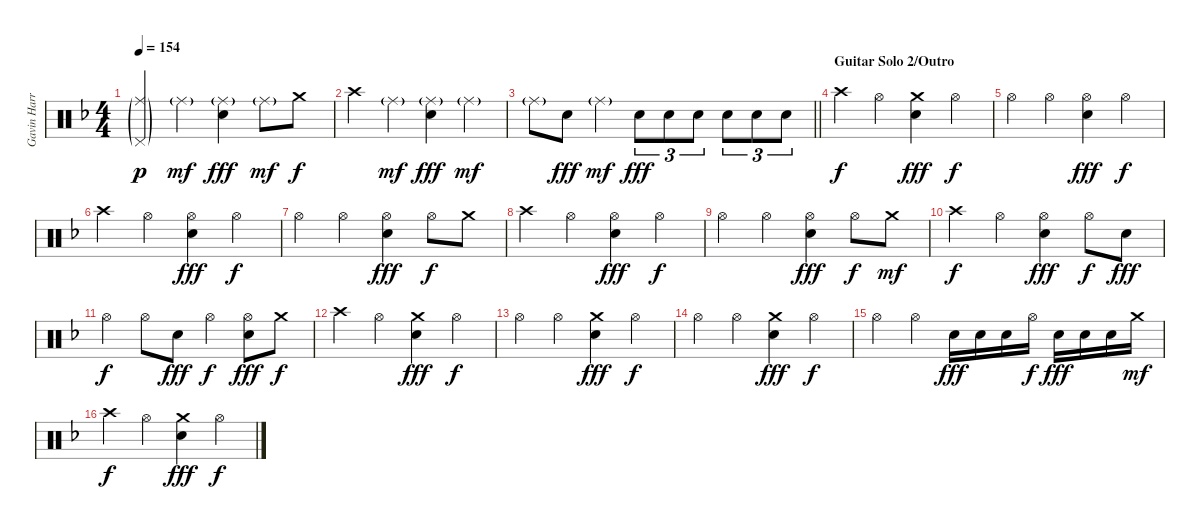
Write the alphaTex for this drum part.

\track ("Gavin Harrison Drums" "Gavin Harr") {instrument percussion}
\staff {score}
\articulation defaults
\ts (4 4)
\tempo 154
\clef neutral
\ks dminor
("Ride (middle)"{g} "Pedal Hi-Hat (hit)"{g}).4{dy p} "Ride (middle)"{g}.4{dy mf} ("Ride (middle)"{g} "Electric Snare (hit)").4{dy fff} "Ride (middle)"{g}.8{dy mf} "Crash medium (hit)".8{dy f} |
"Crash high (hit)".4 "Ride (middle)"{g}.4{dy mf} ("Ride (middle)"{g} "Electric Snare (hit)").4{dy fff} "Ride (middle)"{g}.4{dy mf} |
\barLineRight lightlight "Ride (middle)"{g}.8 "Electric Snare (hit)".8{dy fff} "Ride (middle)"{g}.4{dy mf} "Electric Snare (hit)".8{tu (3 2) dy fff} "Electric Snare (hit)".8{tu (3 2)} "Electric Snare (hit)".8{tu (3 2)} "Electric Snare (hit)".8{tu (3 2)} "Electric Snare (hit)".8{tu (3 2)} "Electric Snare (hit)".8{tu (3 2)}
|
\section ("" "Guitar Solo 2/Outro")
"Crash high (hit)".4{dy f} "Hi-Hat (open)".4 ("Crash medium (hit)" "Electric Snare (hit)").4{dy fff} "Hi-Hat (open)".4{dy f} |
"Hi-Hat (open)".4 "Hi-Hat (open)".4 ("Hi-Hat (open)" "Electric Snare (hit)").4{dy fff} "Hi-Hat (open)".4{dy f} |
"Crash high (hit)".4 "Hi-Hat (open)".4 ("Hi-Hat (open)" "Electric Snare (hit)").4{dy fff} "Hi-Hat (open)".4{dy f} |
"Hi-Hat (open)".4 "Hi-Hat (open)".4 ("Hi-Hat (open)" "Electric Snare (hit)").4{dy fff} "Hi-Hat (open)".8{dy f} "Crash medium (hit)".8 |
"Crash high (hit)".4 "Hi-Hat (open)".4 ("Hi-Hat (open)" "Electric Snare (hit)").4{dy fff} "Hi-Hat (open)".4{dy f} |
"Hi-Hat (open)".4 "Hi-Hat (open)".4 ("Hi-Hat (open)" "Electric Snare (hit)").4{dy fff} "Hi-Hat (open)".8{dy f} "Crash medium (hit)".8{dy mf} |
"Crash high (hit)".4{dy f} "Hi-Hat (open)".4 ("Hi-Hat (open)" "Electric Snare (hit)").4{dy fff} "Hi-Hat (open)".8{dy f} "Electric Snare (hit)".8{dy fff} |
"Hi-Hat (open)".4{dy f} "Hi-Hat (open)".8 "Electric Snare (hit)".8{dy fff} "Hi-Hat (open)".4{dy f} ("Hi-Hat (open)" "Electric Snare (hit)").8{dy fff} "Crash medium (hit)".8{dy f} |
"Crash high (hit)".4 "Hi-Hat (open)".4 ("Crash medium (hit)" "Electric Snare (hit)").4{dy fff} "Hi-Hat (open)".4{dy f} |
"Hi-Hat (open)".4 "Hi-Hat (open)".4 ("Crash medium (hit)" "Electric Snare (hit)").4{dy fff} "Hi-Hat (open)".4{dy f} |
"Hi-Hat (open)".4 "Hi-Hat (open)".4 ("Crash medium (hit)" "Electric Snare (hit)").4{dy fff} "Hi-Hat (open)".4{dy f} |
"Hi-Hat (open)".4 "Hi-Hat (open)".4 "Electric Snare (hit)".16{dy fff} "Electric Snare (hit)".16 "Electric Snare (hit)".16 "Hi-Hat (open)".16{dy f} "Electric Snare (hit)".16{dy fff} "Electric Snare (hit)".16 "Electric Snare (hit)".16 "Crash medium (hit)".16{dy mf} |
"Crash high (hit)".4{dy f} "Hi-Hat (open)".4 ("Crash medium (hit)" "Electric Snare (hit)").4{dy fff} "Hi-Hat (open)".4{dy f}
